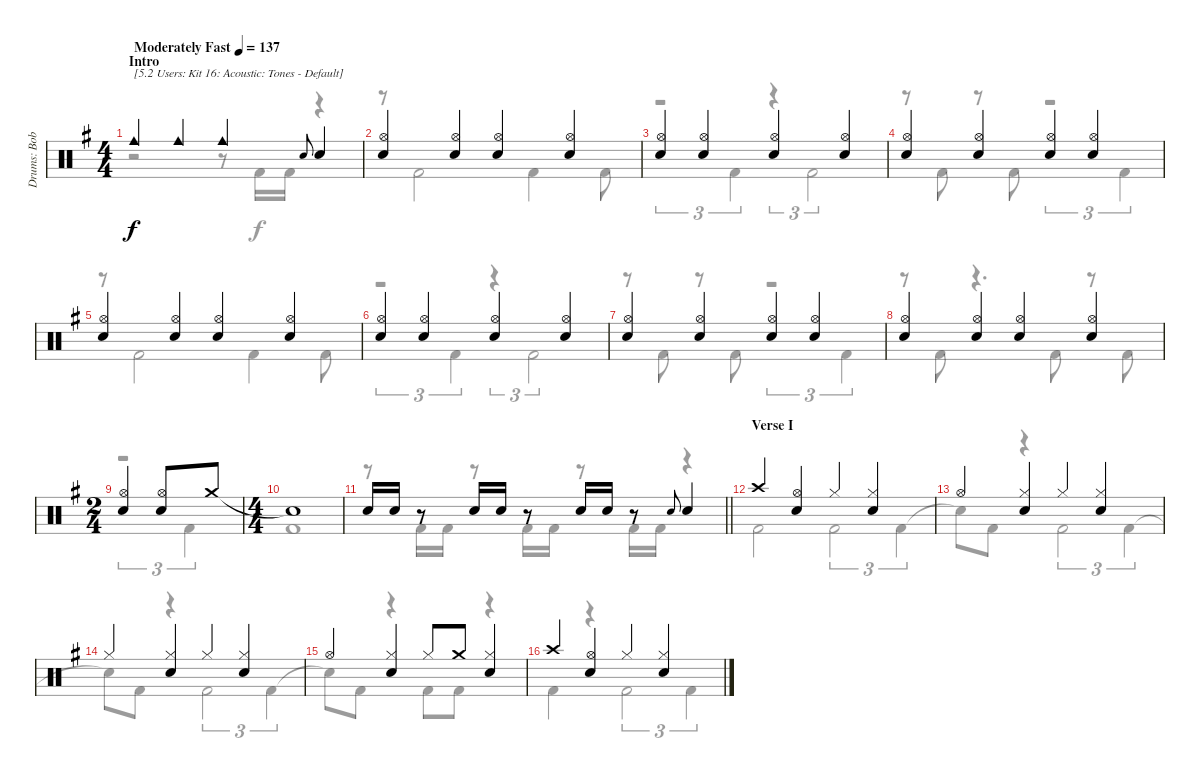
\track ("Drums: Bobby" "Drums: Bob") {instrument percussion}
\staff {score}
\articulation defaults
\voice
\ts (4 4)
\section ("" "Intro")
\tempo (137 "Moderately Fast")
\clef neutral
\ks g "Cowbell medium (hit)".4{txt "[5.2 Users: Kit 16: Acoustic: Tones - Default]" dy f} "Cowbell medium (hit)".4 "Cowbell medium (hit)".4 "Electric Snare (hit)".8{gr onbeat} "Snare (hit) 2".4
|
("Hi-Hat (open)" "Snare (hit) 2").4 ("Hi-Hat (open)" "Snare (hit) 2").4 ("Hi-Hat (open)" "Snare (hit) 2").4 ("Hi-Hat (open)" "Snare (hit) 2").4 |
("Hi-Hat (open)" "Snare (hit) 2").4 ("Hi-Hat (open)" "Snare (hit) 2").4 ("Hi-Hat (open)" "Snare (hit) 2").4 ("Hi-Hat (open)" "Snare (hit) 2").4 |
("Hi-Hat (open)" "Snare (hit) 2").4 ("Hi-Hat (open)" "Snare (hit) 2").4 ("Hi-Hat (open)" "Snare (hit) 2").4 ("Hi-Hat (open)" "Snare (hit) 2").4 |
("Hi-Hat (open)" "Snare (hit) 2").4 ("Hi-Hat (open)" "Snare (hit) 2").4 ("Hi-Hat (open)" "Snare (hit) 2").4 ("Hi-Hat (open)" "Snare (hit) 2").4 |
("Hi-Hat (open)" "Snare (hit) 2").4 ("Hi-Hat (open)" "Snare (hit) 2").4 ("Hi-Hat (open)" "Snare (hit) 2").4 ("Hi-Hat (open)" "Snare (hit) 2").4 |
("Hi-Hat (open)" "Snare (hit) 2").4 ("Hi-Hat (open)" "Snare (hit) 2").4 ("Hi-Hat (open)" "Snare (hit) 2").4 ("Hi-Hat (open)" "Snare (hit) 2").4 |
("Hi-Hat (open)" "Snare (hit) 2").4 ("Hi-Hat (open)" "Snare (hit) 2").4 ("Hi-Hat (open)" "Snare (hit) 2").4 ("Hi-Hat (open)" "Snare (hit) 2").4 |
\ts (2 4)
("Hi-Hat (open)" "Snare (hit) 2").4 ("Hi-Hat (open)" "Snare (hit) 2").8 "Crash medium (hit)".8 |
\ts (4 4)
"Snare (hit)"{t}.1 |
\barLineRight lightlight "Snare (hit) 2".16 "Snare (hit) 2".16
r.8 "Snare (hit) 2".16 "Snare (hit) 2".16 r.8 "Snare (hit) 2".16 "Snare (hit) 2".16 r.8 "Electric Snare (hit)".8{gr onbeat} "Snare (hit) 2".4 |
\section ("" "Verse I")
"Crash high (hit)".4 ("Hi-Hat (open)" "Snare (hit) 2").4 "Hi-Hat (closed)".4 ("Hi-Hat (closed)" "Snare (hit) 2").4 |
"Hi-Hat (open)".4 ("Hi-Hat (closed)" "Snare (hit) 2").4 "Hi-Hat (closed)".4 ("Hi-Hat (closed)" "Snare (hit) 2").4 |
"Hi-Hat (closed)".4 ("Hi-Hat (closed)" "Snare (hit) 2").4 "Hi-Hat (closed)".4 ("Hi-Hat (closed)" "Snare (hit) 2").4 |
"Hi-Hat (open)".4 ("Hi-Hat (closed)" "Snare (hit) 2").4 "Hi-Hat (closed)".8 "Crash medium (hit)".8 ("Hi-Hat (closed)" "Snare (hit) 2").4 |
"Crash high (hit)".4 ("Hi-Hat (open)" "Snare (hit) 2").4 "Hi-Hat (closed)".4 ("Hi-Hat (closed)" "Snare (hit) 2").4
\voice
\clef neutral
\ottava regular
\simile none
\ks g
r.2{dy f} r.8 "Kick (hit) 2".16 "Kick (hit) 2".16 r.4 |
r.8 "Kick (hit) 2".2 "Kick (hit) 2".4 "Kick (hit) 2".8 |
r.2{tu (3 2)} "Kick (hit) 2".4{tu (3 2)} r.4{tu (3 2)} "Kick (hit) 2".2{tu (3 2)} |
r.8 "Kick (hit) 2".8 r.8 "Kick (hit) 2".8 r.2{tu (3 2)} "Kick (hit) 2".4{tu (3 2)} |
r.8 "Kick (hit) 2".2 "Kick (hit) 2".4 "Kick (hit) 2".8 |
r.2{tu (3 2)} "Kick (hit) 2".4{tu (3 2)} r.4{tu (3 2)} "Kick (hit) 2".2{tu (3 2)} |
r.8 "Kick (hit) 2".8 r.8 "Kick (hit) 2".8 r.2{tu (3 2)} "Kick (hit) 2".4{tu (3 2)} |
r.8 "Kick (hit) 2".8 r.4{d} "Kick (hit) 2".8 r.8 "Kick (hit) 2".8 |
r.2{tu (3 2)} "Kick (hit) 2".4{tu (3 2)} |
"Kick (hit) 2".1 |
\barLineRight lightlight
r.8 "Kick (hit) 2".16 "Kick (hit) 2".16 r.8 "Kick (hit) 2".16 "Kick (hit) 2".16 r.8 "Kick (hit) 2".16 "Kick (hit) 2".16 r.4 |
"Kick (hit) 2".2 "Kick (hit) 2".2{tu (3 2)} "Kick (hit) 2".4{tu (3 2)} |
"Snare (hit)"{t}.8 "Kick (hit) 2".8 r.4 "Kick (hit) 2".2{tu (3 2)} "Kick (hit) 2".4{tu (3 2)} |
"Snare (hit)"{t}.8 "Kick (hit) 2".8 r.4 "Kick (hit) 2".2{tu (3 2)} "Kick (hit) 2".4{tu (3 2)} |
"Snare (hit)"{t}.8 "Kick (hit) 2".8 r.4 "Kick (hit) 2".8 "Kick (hit) 2".8 r.4 |
"Kick (hit) 2".4 r.4 "Kick (hit) 2".2{tu (3 2)} "Kick (hit) 2".4{tu (3 2)}
